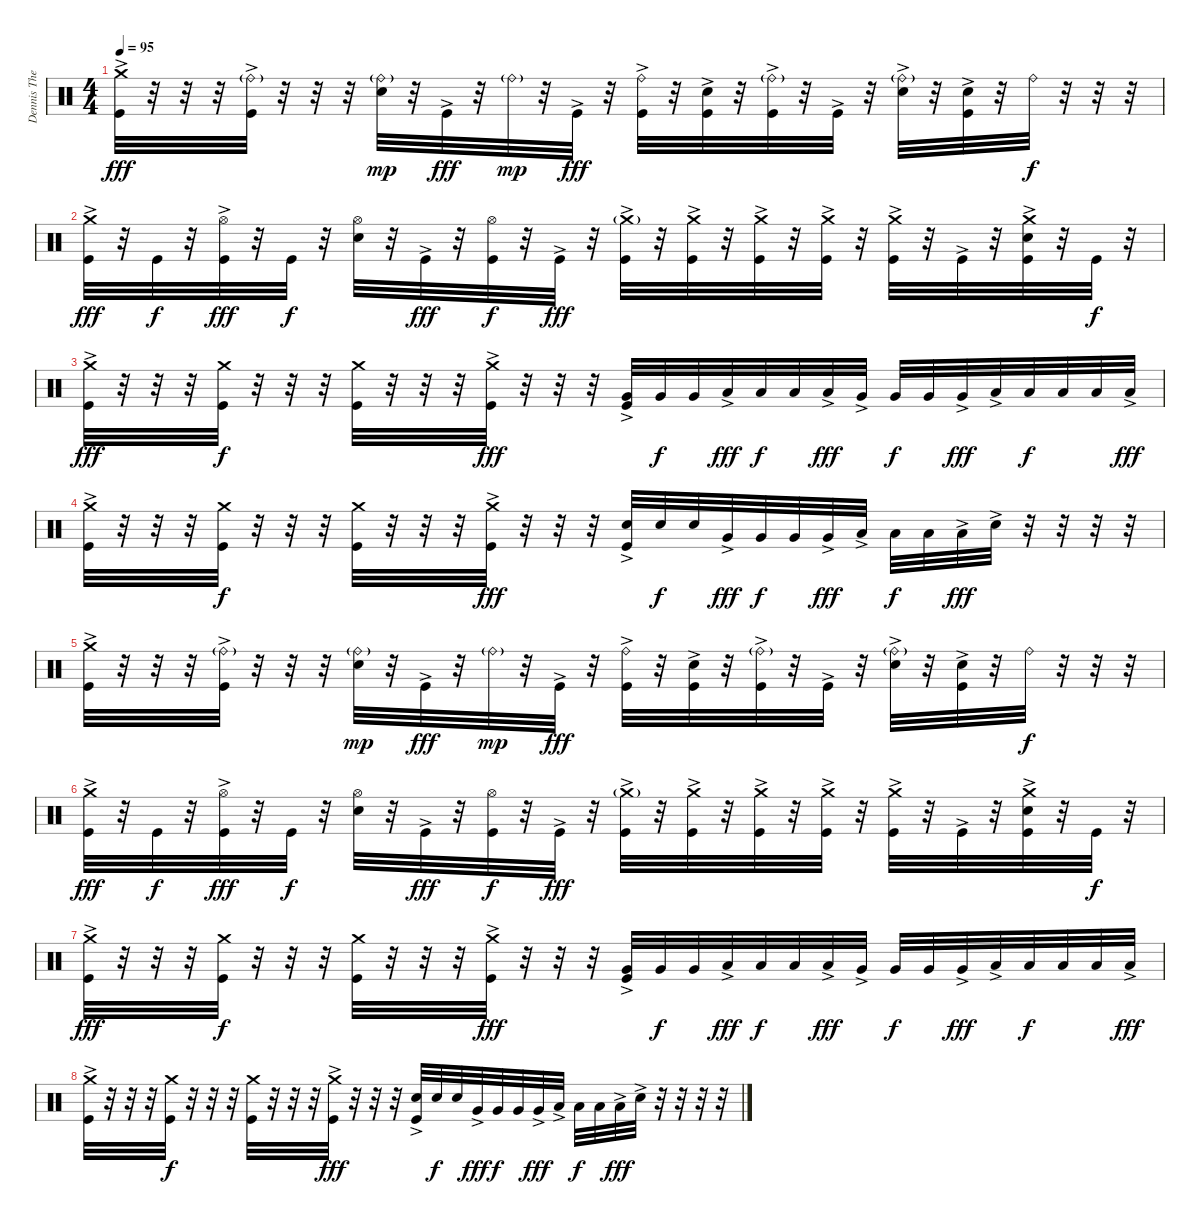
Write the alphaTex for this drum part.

\track ("Dennis The Menace" "Dennis The") {instrument percussion}
\staff {score}
\articulation defaults
\ts (4 4)
\tempo 95
\clef neutral
\ks c
("Crash medium (hit)" "Kick (hit)"{ac}).32{dy fff} r.32 r.32 r.32 ("Ride (bell)"{g} "Kick (hit)"{ac}).32 r.32 r.32 r.32 ("Ride (bell)"{g} "Electric Snare (hit)").32{dy mp} r.32 "Kick (hit)"{ac}.32{dy fff} r.32 "Ride (bell)"{g}.32{dy mp} r.32 "Kick (hit)"{ac}.32{dy fff} r.32 ("Ride (bell)" "Kick (hit)"{ac}).32 r.32 ("Electric Snare (hit)"{ac} "Kick (hit)"{ac}).32 r.32 ("Ride (bell)"{g} "Kick (hit)"{ac}).32 r.32 "Kick (hit)"{ac}.32 r.32 ("Ride (bell)"{g} "Electric Snare (hit)"{ac}).32 r.32 ("Electric Snare (hit)" "Kick (hit)"{ac}).32 r.32 "Ride (bell)".32{dy f} r.32 r.32 r.32 |
("Crash medium (hit)" "Kick (hit)"{ac}).32{dy fff} r.32 "Kick (hit)".32{dy f} r.32 ("Hi-Hat (open)" "Kick (hit)"{ac}).32{dy fff} r.32 "Kick (hit)".32{dy f} r.32 ("Hi-Hat (open)" "Electric Snare (hit)").32 r.32 "Kick (hit)"{ac}.32{dy fff} r.32 ("Hi-Hat (open)" "Kick (hit)").32{dy f} r.32 "Kick (hit)"{ac}.32{dy fff} r.32 ("Crash medium (hit)"{g} "Kick (hit)"{ac}).32 r.32 ("Crash medium (hit)" "Kick (hit)"{ac}).32 r.32 ("Crash medium (hit)" "Kick (hit)"{ac}).32 r.32 ("Crash medium (hit)"{ac} "Kick (hit)"{ac}).32 r.32 ("Crash medium (hit)"{ac} "Kick (hit)"{ac}).32 r.32 "Kick (hit)"{ac}.32 r.32 ("Crash medium (hit)" "Kick (hit)" "Electric Snare (hit)"{ac}).32 r.32 "Kick (hit)".32{dy f} r.32 |
("Crash medium (hit)"{ac} "Kick (hit)").32{dy fff} r.32 r.32 r.32 ("Crash medium (hit)" "Kick (hit)").32{dy f} r.32 r.32 r.32 ("Crash medium (hit)" "Kick (hit)").32 r.32 r.32 r.32 ("Crash medium (hit)"{ac} "Kick (hit)").32{dy fff} r.32 r.32 r.32 ("Very Low Tom (hit)"{ac} "Kick (hit)").32 "Very Low Tom (hit)".32{dy f} "Very Low Tom (hit)".32 "Low Tom (hit)"{ac}.32{dy fff} "Low Tom (hit)".32{dy f} "Low Tom (hit)".32 "Low Tom (hit)"{ac}.32{dy fff} "Very Low Tom (hit)"{ac}.32 "Very Low Tom (hit)".32{dy f} "Very Low Tom (hit)".32 "Very Low Tom (hit)"{ac}.32{dy fff} "Low Floor Tom (hit)"{ac}.32 "Low Floor Tom (hit)".32{dy f} "Low Floor Tom (hit)".32 "Low Floor Tom (hit)".32 "Low Floor Tom (hit)"{ac}.32{dy fff} |
("Crash medium (hit)"{ac} "Kick (hit)").32 r.32 r.32 r.32 ("Crash medium (hit)" "Kick (hit)").32{dy f} r.32 r.32 r.32 ("Crash medium (hit)" "Kick (hit)").32 r.32 r.32 r.32 ("Crash medium (hit)"{ac} "Kick (hit)").32{dy fff} r.32 r.32 r.32 ("Electric Snare (hit)"{ac} "Kick (hit)").32 "Electric Snare (hit)".32{dy f} "Electric Snare (hit)".32 "Very Low Tom (hit)"{ac}.32{dy fff} "Very Low Tom (hit)".32{dy f} "Very Low Tom (hit)".32 "Very Low Tom (hit)"{ac}.32{dy fff} "Low Floor Tom (hit)"{ac}.32 "Low Floor Tom (hit)".32{dy f} "Low Floor Tom (hit)".32 "Low Floor Tom (hit)"{ac}.32{dy fff} "Electric Snare (hit)"{ac}.32 r.32 r.32 r.32 r.32 |
("Crash medium (hit)" "Kick (hit)"{ac}).32 r.32 r.32 r.32 ("Ride (bell)"{g} "Kick (hit)"{ac}).32 r.32 r.32 r.32 ("Ride (bell)"{g} "Electric Snare (hit)").32{dy mp} r.32 "Kick (hit)"{ac}.32{dy fff} r.32 "Ride (bell)"{g}.32{dy mp} r.32 "Kick (hit)"{ac}.32{dy fff} r.32 ("Ride (bell)" "Kick (hit)"{ac}).32 r.32 ("Electric Snare (hit)"{ac} "Kick (hit)"{ac}).32 r.32 ("Ride (bell)"{g} "Kick (hit)"{ac}).32 r.32 "Kick (hit)"{ac}.32 r.32 ("Ride (bell)"{g} "Electric Snare (hit)"{ac}).32 r.32 ("Electric Snare (hit)" "Kick (hit)"{ac}).32 r.32 "Ride (bell)".32{dy f} r.32 r.32 r.32 |
("Crash medium (hit)" "Kick (hit)"{ac}).32{dy fff} r.32 "Kick (hit)".32{dy f} r.32 ("Hi-Hat (open)" "Kick (hit)"{ac}).32{dy fff} r.32 "Kick (hit)".32{dy f} r.32 ("Hi-Hat (open)" "Electric Snare (hit)").32 r.32 "Kick (hit)"{ac}.32{dy fff} r.32 ("Hi-Hat (open)" "Kick (hit)").32{dy f} r.32 "Kick (hit)"{ac}.32{dy fff} r.32 ("Crash medium (hit)"{g} "Kick (hit)"{ac}).32 r.32 ("Crash medium (hit)" "Kick (hit)"{ac}).32 r.32 ("Crash medium (hit)" "Kick (hit)"{ac}).32 r.32 ("Crash medium (hit)"{ac} "Kick (hit)"{ac}).32 r.32 ("Crash medium (hit)"{ac} "Kick (hit)"{ac}).32 r.32 "Kick (hit)"{ac}.32 r.32 ("Crash medium (hit)" "Kick (hit)" "Electric Snare (hit)"{ac}).32 r.32 "Kick (hit)".32{dy f} r.32 |
("Crash medium (hit)"{ac} "Kick (hit)").32{dy fff} r.32 r.32 r.32 ("Crash medium (hit)" "Kick (hit)").32{dy f} r.32 r.32 r.32 ("Crash medium (hit)" "Kick (hit)").32 r.32 r.32 r.32 ("Crash medium (hit)"{ac} "Kick (hit)").32{dy fff} r.32 r.32 r.32 ("Very Low Tom (hit)"{ac} "Kick (hit)").32 "Very Low Tom (hit)".32{dy f} "Very Low Tom (hit)".32 "Low Tom (hit)"{ac}.32{dy fff} "Low Tom (hit)".32{dy f} "Low Tom (hit)".32 "Low Tom (hit)"{ac}.32{dy fff} "Very Low Tom (hit)"{ac}.32 "Very Low Tom (hit)".32{dy f} "Very Low Tom (hit)".32 "Very Low Tom (hit)"{ac}.32{dy fff} "Low Floor Tom (hit)"{ac}.32 "Low Floor Tom (hit)".32{dy f} "Low Floor Tom (hit)".32 "Low Floor Tom (hit)".32 "Low Floor Tom (hit)"{ac}.32{dy fff} |
("Crash medium (hit)"{ac} "Kick (hit)").32 r.32 r.32 r.32 ("Crash medium (hit)" "Kick (hit)").32{dy f} r.32 r.32 r.32 ("Crash medium (hit)" "Kick (hit)").32 r.32 r.32 r.32 ("Crash medium (hit)"{ac} "Kick (hit)").32{dy fff} r.32 r.32 r.32 ("Electric Snare (hit)"{ac} "Kick (hit)").32 "Electric Snare (hit)".32{dy f} "Electric Snare (hit)".32 "Very Low Tom (hit)"{ac}.32{dy fff} "Very Low Tom (hit)".32{dy f} "Very Low Tom (hit)".32 "Very Low Tom (hit)"{ac}.32{dy fff} "Low Floor Tom (hit)"{ac}.32 "Low Floor Tom (hit)".32{dy f} "Low Floor Tom (hit)".32 "Low Floor Tom (hit)"{ac}.32{dy fff} "Electric Snare (hit)"{ac}.32 r.32 r.32 r.32 r.32
